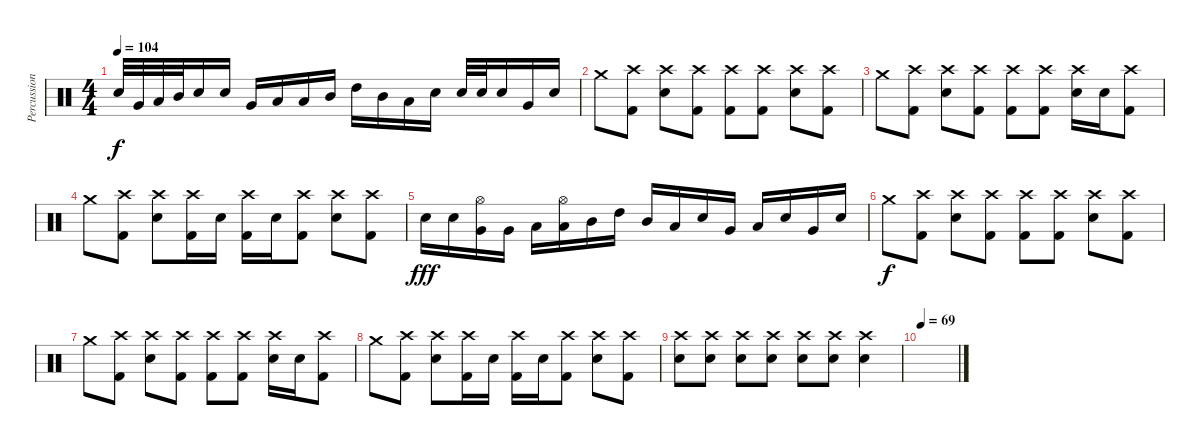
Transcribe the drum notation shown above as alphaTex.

\track ("Percussion" "Percussion") {instrument percussion}
\staff {score}
\articulation defaults
\ts (4 4)
\tempo 104
\clef neutral
\ks c "Electric Snare (hit)".32{dy f} "Very Low Tom (hit)".32 "Low Tom (hit)".32 "Mid Tom (hit)".32 "Electric Snare (hit)".16 "Electric Snare (hit)".16 "Very Low Tom (hit)".16 "Low Tom (hit)".16 "Low Tom (hit)".16 "Mid Tom (hit)".16 "High Tom (hit)".16 "Mid Tom (hit)".16 "Low Floor Tom (hit)".16 "Electric Snare (hit)".16 "Electric Snare (hit)".32 "Electric Snare (hit)".32 "Electric Snare (hit)".16 "Very Low Tom (hit)".16 "Electric Snare (hit)".16
|
"Crash medium (hit)".8 ("Crash high (hit)" "Kick (hit) 2").8 ("Crash high (hit)" "Electric Snare (hit)").8 ("Crash high (hit)" "Kick (hit) 2").8 ("Crash high (hit)" "Kick (hit) 2").8 ("Crash high (hit)" "Kick (hit) 2").8 ("Crash high (hit)" "Electric Snare (hit)").8 ("Crash high (hit)" "Kick (hit) 2").8 |
"Crash medium (hit)".8 ("Crash high (hit)" "Kick (hit) 2").8 ("Crash high (hit)" "Electric Snare (hit)").8 ("Crash high (hit)" "Kick (hit) 2").8 ("Crash high (hit)" "Kick (hit) 2").8 ("Crash high (hit)" "Kick (hit) 2").8 ("Crash high (hit)" "Electric Snare (hit)").16 "Electric Snare (hit)".16 ("Crash high (hit)" "Kick (hit) 2").8 |
"Crash medium (hit)".8 ("Crash high (hit)" "Kick (hit) 2").8 ("Crash high (hit)" "Electric Snare (hit)").8 ("Crash high (hit)" "Kick (hit) 2").16 "Electric Snare (hit)".16 ("Crash high (hit)" "Kick (hit) 2").16 "Electric Snare (hit)".16 ("Crash high (hit)" "Kick (hit) 2").8 ("Crash high (hit)" "Electric Snare (hit)").8 ("Crash high (hit)" "Kick (hit) 2").8 |
"Electric Snare (hit)".16{dy fff} "Electric Snare (hit)".16 ("Hi-Hat (open)" "Very Low Tom (hit)").16 "Very Low Tom (hit)".16 "Low Tom (hit)".16 ("Hi-Hat (open)" "Low Tom (hit)").16 "Mid Tom (hit)".16 "High Tom (hit)".16 "Mid Tom (hit)".16 "Low Tom (hit)".16 "Electric Snare (hit)".16 "Very Low Tom (hit)".16 "Low Tom (hit)".16 "Electric Snare (hit)".16 "Very Low Tom (hit)".16 "Electric Snare (hit)".16 |
"Crash medium (hit)".8{dy f} ("Crash high (hit)" "Kick (hit) 2").8 ("Crash high (hit)" "Electric Snare (hit)").8 ("Crash high (hit)" "Kick (hit) 2").8 ("Crash high (hit)" "Kick (hit) 2").8 ("Crash high (hit)" "Kick (hit) 2").8 ("Crash high (hit)" "Electric Snare (hit)").8 ("Crash high (hit)" "Kick (hit) 2").8 |
"Crash medium (hit)".8 ("Crash high (hit)" "Kick (hit) 2").8 ("Crash high (hit)" "Electric Snare (hit)").8 ("Crash high (hit)" "Kick (hit) 2").8 ("Crash high (hit)" "Kick (hit) 2").8 ("Crash high (hit)" "Kick (hit) 2").8 ("Crash high (hit)" "Electric Snare (hit)").16 "Electric Snare (hit)".16 ("Crash high (hit)" "Kick (hit) 2").8 |
"Crash medium (hit)".8 ("Crash high (hit)" "Kick (hit) 2").8 ("Crash high (hit)" "Electric Snare (hit)").8 ("Crash high (hit)" "Kick (hit) 2").16 "Electric Snare (hit)".16 ("Crash high (hit)" "Kick (hit) 2").16 "Electric Snare (hit)".16 ("Crash high (hit)" "Kick (hit) 2").8 ("Crash high (hit)" "Electric Snare (hit)").8 ("Crash high (hit)" "Kick (hit) 2").8 |
("Crash high (hit)" "Electric Snare (hit)").8 ("Crash high (hit)" "Electric Snare (hit)").8 ("Crash high (hit)" "Electric Snare (hit)").8 ("Crash high (hit)" "Electric Snare (hit)").8 ("Crash high (hit)" "Electric Snare (hit)").8 ("Crash high (hit)" "Electric Snare (hit)").8 ("Crash high (hit)" "Electric Snare (hit)").4 |
\tempo 69
